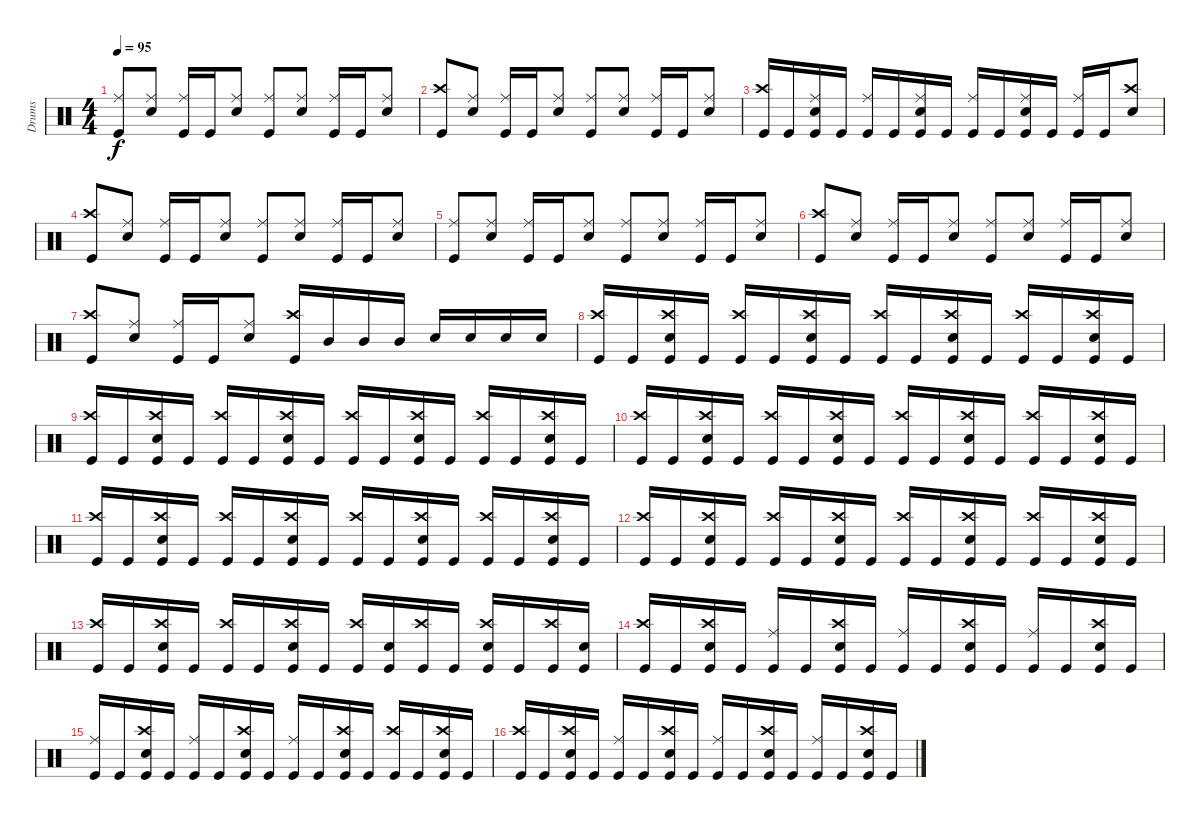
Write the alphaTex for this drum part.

\track ("Drums" "Drums") {instrument percussion}
\staff {score}
\articulation defaults
\ts (4 4)
\tempo 95
\clef neutral
\ks c
("Kick (hit)" "Ride (middle)").8{dy f beam Up} ("Snare (hit) 2" "Ride (middle)").8{beam Up} ("Kick (hit)" "Ride (middle)").16{beam Up} "Kick (hit)".16{beam Up} ("Snare (hit) 2" "Ride (middle)").8{beam Up} ("Kick (hit)" "Ride (middle)").8{beam Up} ("Snare (hit) 2" "Ride (middle)").8{beam Up} ("Kick (hit)" "Ride (middle)").16{beam Up} "Kick (hit)".16{beam Up} ("Snare (hit) 2" "Ride (middle)").8{beam Up} |
("Kick (hit)" "Crash high (hit)").8{beam Up} ("Snare (hit) 2" "Ride (middle)").8{beam Up} ("Kick (hit)" "Ride (middle)").16{beam Up} "Kick (hit)".16{beam Up} ("Snare (hit) 2" "Ride (middle)").8{beam Up} ("Kick (hit)" "Ride (middle)").8{beam Up} ("Snare (hit) 2" "Ride (middle)").8{beam Up} ("Kick (hit)" "Ride (middle)").16{beam Up} "Kick (hit)".16{beam Up} ("Snare (hit) 2" "Ride (middle)").8{beam Up} |
("Kick (hit)" "Crash high (hit)").16{beam Up} "Kick (hit)".16{beam Up} ("Kick (hit)" "Ride (middle)" "Snare (hit) 2").16{beam Up} "Kick (hit)".16{beam Up} ("Kick (hit)" "Ride (middle)").16{beam Up} "Kick (hit)".16{beam Up} ("Kick (hit)" "Ride (middle)" "Snare (hit) 2").16{beam Up} "Kick (hit)".16{beam Up} ("Kick (hit)" "Ride (middle)").16{beam Up} "Kick (hit)".16{beam Up} ("Kick (hit)" "Ride (middle)" "Snare (hit) 2").16{beam Up} "Kick (hit)".16{beam Up} ("Kick (hit)" "Ride (middle)").16{beam Up} "Kick (hit)".16{beam Up} ("Snare (hit) 2" "Crash high (hit)").8{beam Up} |
("Kick (hit)" "Crash high (hit)").8{beam Up} ("Snare (hit) 2" "Ride (middle)").8{beam Up} ("Kick (hit)" "Ride (middle)").16{beam Up} "Kick (hit)".16{beam Up} ("Snare (hit) 2" "Ride (middle)").8{beam Up} ("Kick (hit)" "Ride (middle)").8{beam Up} ("Snare (hit) 2" "Ride (middle)").8{beam Up} ("Kick (hit)" "Ride (middle)").16{beam Up} "Kick (hit)".16{beam Up} ("Snare (hit) 2" "Ride (middle)").8{beam Up} |
("Kick (hit)" "Ride (middle)").8{beam Up} ("Snare (hit) 2" "Ride (middle)").8{beam Up} ("Kick (hit)" "Ride (middle)").16{beam Up} "Kick (hit)".16{beam Up} ("Snare (hit) 2" "Ride (middle)").8{beam Up} ("Kick (hit)" "Ride (middle)").8{beam Up} ("Snare (hit) 2" "Ride (middle)").8{beam Up} ("Kick (hit)" "Ride (middle)").16{beam Up} "Kick (hit)".16{beam Up} ("Snare (hit) 2" "Ride (middle)").8{beam Up} |
("Kick (hit)" "Crash high (hit)").8{beam Up} ("Snare (hit) 2" "Ride (middle)").8{beam Up} ("Kick (hit)" "Ride (middle)").16{beam Up} "Kick (hit)".16{beam Up} ("Snare (hit) 2" "Ride (middle)").8{beam Up} ("Kick (hit)" "Ride (middle)").8{beam Up} ("Snare (hit) 2" "Ride (middle)").8{beam Up} ("Kick (hit)" "Ride (middle)").16{beam Up} "Kick (hit)".16{beam Up} ("Snare (hit) 2" "Ride (middle)").8{beam Up} |
("Kick (hit)" "Crash high (hit)").8{beam Up} ("Snare (hit) 2" "Ride (middle)").8{beam Up} ("Kick (hit)" "Ride (middle)").16{beam Up} "Kick (hit)".16{beam Up} ("Snare (hit) 2" "Ride (middle)").8{beam Up} ("Kick (hit)" "Crash high (hit)").16{beam Up} "Mid Tom (hit)".16{beam Up} "Mid Tom (hit)".16{beam Up} "Mid Tom (hit)".16{beam Up} "Snare (hit) 2".16{beam Up} "Snare (hit) 2".16{beam Up} "Snare (hit) 2".16{beam Up} "Snare (hit) 2".16{beam Up} |
("Kick (hit)" "Crash high (hit)").16{beam Up} "Kick (hit)".16{beam Up} ("Kick (hit)" "Snare (hit) 2" "Crash high (hit)").16{beam Up} "Kick (hit)".16{beam Up} ("Kick (hit)" "Crash high (hit)").16{beam Up} "Kick (hit)".16{beam Up} ("Kick (hit)" "Crash high (hit)" "Snare (hit) 2").16{beam Up} "Kick (hit)".16{beam Up} ("Kick (hit)" "Crash high (hit)").16{beam Up} "Kick (hit)".16{beam Up} ("Kick (hit)" "Crash high (hit)" "Snare (hit) 2").16{beam Up} "Kick (hit)".16{beam Up} ("Kick (hit)" "Crash high (hit)").16{beam Up} "Kick (hit)".16{beam Up} ("Kick (hit)" "Crash high (hit)" "Snare (hit) 2").16{beam Up} "Kick (hit)".16{beam Up} |
("Kick (hit)" "Crash high (hit)").16{beam Up} "Kick (hit)".16{beam Up} ("Kick (hit)" "Snare (hit) 2" "Crash high (hit)").16{beam Up} "Kick (hit)".16{beam Up} ("Kick (hit)" "Crash high (hit)").16{beam Up} "Kick (hit)".16{beam Up} ("Kick (hit)" "Crash high (hit)" "Snare (hit) 2").16{beam Up} "Kick (hit)".16{beam Up} ("Kick (hit)" "Crash high (hit)").16{beam Up} "Kick (hit)".16{beam Up} ("Kick (hit)" "Crash high (hit)" "Snare (hit) 2").16{beam Up} "Kick (hit)".16{beam Up} ("Kick (hit)" "Crash high (hit)").16{beam Up} "Kick (hit)".16{beam Up} ("Kick (hit)" "Crash high (hit)" "Snare (hit) 2").16{beam Up} "Kick (hit)".16{beam Up} |
("Kick (hit)" "Crash high (hit)").16{beam Up} "Kick (hit)".16{beam Up} ("Kick (hit)" "Snare (hit) 2" "Crash high (hit)").16{beam Up} "Kick (hit)".16{beam Up} ("Kick (hit)" "Crash high (hit)").16{beam Up} "Kick (hit)".16{beam Up} ("Kick (hit)" "Crash high (hit)" "Snare (hit) 2").16{beam Up} "Kick (hit)".16{beam Up} ("Kick (hit)" "Crash high (hit)").16{beam Up} "Kick (hit)".16{beam Up} ("Kick (hit)" "Crash high (hit)" "Snare (hit) 2").16{beam Up} "Kick (hit)".16{beam Up} ("Kick (hit)" "Crash high (hit)").16{beam Up} "Kick (hit)".16{beam Up} ("Kick (hit)" "Crash high (hit)" "Snare (hit) 2").16{beam Up} "Kick (hit)".16{beam Up} |
("Kick (hit)" "Crash high (hit)").16{beam Up} "Kick (hit)".16{beam Up} ("Kick (hit)" "Snare (hit) 2" "Crash high (hit)").16{beam Up} "Kick (hit)".16{beam Up} ("Kick (hit)" "Crash high (hit)").16{beam Up} "Kick (hit)".16{beam Up} ("Kick (hit)" "Crash high (hit)" "Snare (hit) 2").16{beam Up} "Kick (hit)".16{beam Up} ("Kick (hit)" "Crash high (hit)").16{beam Up} "Kick (hit)".16{beam Up} ("Kick (hit)" "Crash high (hit)" "Snare (hit) 2").16{beam Up} "Kick (hit)".16{beam Up} ("Kick (hit)" "Crash high (hit)").16{beam Up} "Kick (hit)".16{beam Up} ("Kick (hit)" "Crash high (hit)" "Snare (hit) 2").16{beam Up} "Kick (hit)".16{beam Up} |
("Kick (hit)" "Crash high (hit)").16{beam Up} "Kick (hit)".16{beam Up} ("Kick (hit)" "Snare (hit) 2" "Crash high (hit)").16{beam Up} "Kick (hit)".16{beam Up} ("Kick (hit)" "Crash high (hit)").16{beam Up} "Kick (hit)".16{beam Up} ("Kick (hit)" "Crash high (hit)" "Snare (hit) 2").16{beam Up} "Kick (hit)".16{beam Up} ("Kick (hit)" "Crash high (hit)").16{beam Up} "Kick (hit)".16{beam Up} ("Kick (hit)" "Crash high (hit)" "Snare (hit) 2").16{beam Up} "Kick (hit)".16{beam Up} ("Kick (hit)" "Crash high (hit)").16{beam Up} "Kick (hit)".16{beam Up} ("Kick (hit)" "Crash high (hit)" "Snare (hit) 2").16{beam Up} "Kick (hit)".16{beam Up} |
("Kick (hit)" "Crash high (hit)").16{beam Up} "Kick (hit)".16{beam Up} ("Kick (hit)" "Snare (hit) 2" "Crash high (hit)").16{beam Up} "Kick (hit)".16{beam Up} ("Kick (hit)" "Crash high (hit)").16{beam Up} "Kick (hit)".16{beam Up} ("Kick (hit)" "Crash high (hit)" "Snare (hit) 2").16{beam Up} "Kick (hit)".16{beam Up} ("Kick (hit)" "Crash high (hit)").16{beam Up} ("Snare (hit) 2" "Kick (hit)").16{beam Up} ("Kick (hit)" "Crash high (hit)").16{beam Up} "Kick (hit)".16{beam Up} ("Kick (hit)" "Crash high (hit)" "Snare (hit) 2").16{beam Up} "Kick (hit)".16{beam Up} ("Kick (hit)" "Crash high (hit)").16{beam Up} ("Kick (hit)" "Snare (hit) 2").16{beam Up} |
("Kick (hit)" "Crash high (hit)").16{beam Up} "Kick (hit)".16{beam Up} ("Kick (hit)" "Snare (hit) 2" "Crash high (hit)").16{beam Up} "Kick (hit)".16{beam Up} ("Kick (hit)" "Ride (middle)").16{beam Up} "Kick (hit)".16{beam Up} ("Kick (hit)" "Crash high (hit)" "Snare (hit) 2").16{beam Up} "Kick (hit)".16{beam Up} ("Kick (hit)" "Ride (middle)").16{beam Up} "Kick (hit)".16{beam Up} ("Kick (hit)" "Crash high (hit)" "Snare (hit) 2").16{beam Up} "Kick (hit)".16{beam Up} ("Kick (hit)" "Ride (middle)").16{beam Up} "Kick (hit)".16{beam Up} ("Kick (hit)" "Crash high (hit)" "Snare (hit) 2").16{beam Up} "Kick (hit)".16{beam Up} |
("Kick (hit)" "Ride (middle)").16{beam Up} "Kick (hit)".16{beam Up} ("Kick (hit)" "Snare (hit) 2" "Crash high (hit)").16{beam Up} "Kick (hit)".16{beam Up} ("Kick (hit)" "Ride (middle)").16{beam Up} "Kick (hit)".16{beam Up} ("Kick (hit)" "Crash high (hit)" "Snare (hit) 2").16{beam Up} "Kick (hit)".16{beam Up} ("Kick (hit)" "Ride (middle)").16{beam Up} "Kick (hit)".16{beam Up} ("Kick (hit)" "Crash high (hit)" "Snare (hit) 2").16{beam Up} "Kick (hit)".16{beam Up} ("Kick (hit)" "Crash high (hit)").16{beam Up} "Kick (hit)".16{beam Up} ("Kick (hit)" "Crash high (hit)" "Snare (hit) 2").16{beam Up} "Kick (hit)".16{beam Up} |
("Kick (hit)" "Crash high (hit)").16{beam Up} "Kick (hit)".16{beam Up} ("Kick (hit)" "Snare (hit) 2" "Crash high (hit)").16{beam Up} "Kick (hit)".16{beam Up} ("Kick (hit)" "Ride (middle)").16{beam Up} "Kick (hit)".16{beam Up} ("Kick (hit)" "Crash high (hit)" "Snare (hit) 2").16{beam Up} "Kick (hit)".16{beam Up} ("Kick (hit)" "Ride (middle)").16{beam Up} "Kick (hit)".16{beam Up} ("Kick (hit)" "Crash high (hit)" "Snare (hit) 2").16{beam Up} "Kick (hit)".16{beam Up} ("Kick (hit)" "Ride (middle)").16{beam Up} "Kick (hit)".16{beam Up} ("Kick (hit)" "Crash high (hit)" "Snare (hit) 2").16{beam Up} "Kick (hit)".16{beam Up}
